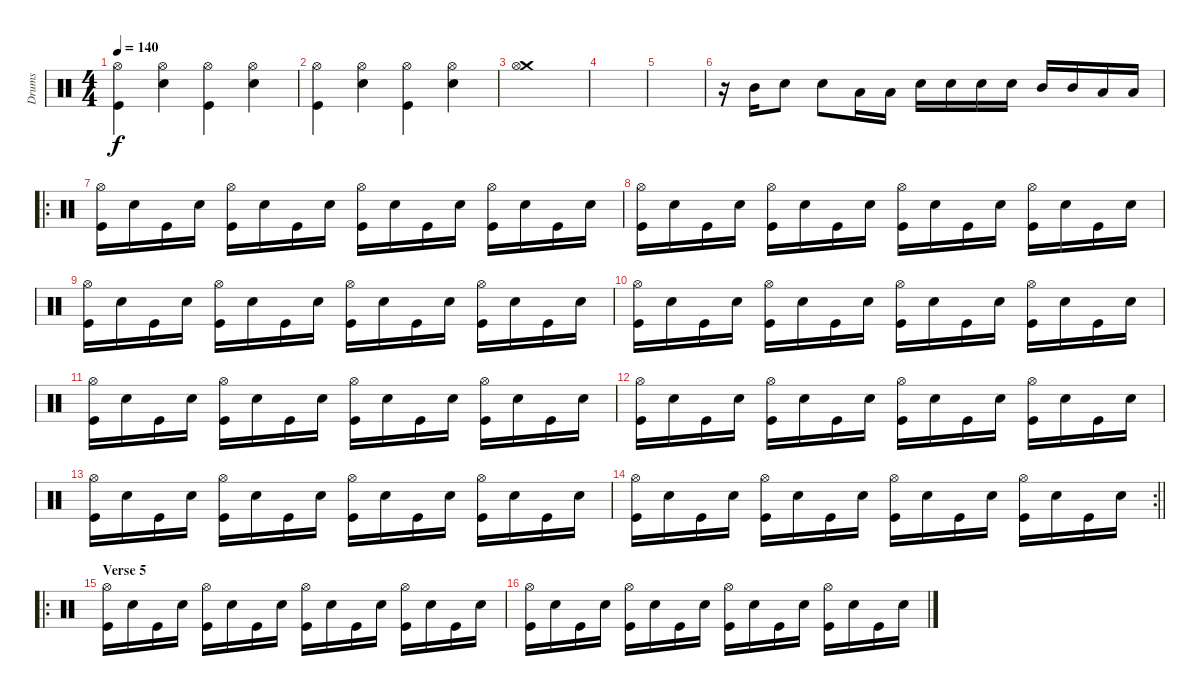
\track ("Drums" "Drums") {instrument percussion}
\staff {score}
\articulation defaults
\ts (4 4)
\tempo 140
\clef neutral
\ks c
("Hi-Hat (open)" "Kick (hit)").4{dy f} ("Hi-Hat (open)" "Snare (hit) 2").4 ("Hi-Hat (open)" "Kick (hit)").4 ("Hi-Hat (open)" "Snare (hit) 2").4 |
("Hi-Hat (open)" "Kick (hit)").4 ("Hi-Hat (open)" "Snare (hit) 2").4 ("Hi-Hat (open)" "Kick (hit)").4 ("Hi-Hat (open)" "Snare (hit) 2").4 |
("Crash medium (hit)" "Hi-Hat (open)").1 |
|
|
r.16 "Mid Tom (hit)".16 "Snare (hit) 2".8 "Snare (hit) 2".8 "Low Tom (hit)".16 "Low Tom (hit)".16 "Snare (hit) 2".16 "Snare (hit) 2".16 "Snare (hit) 2".16 "Snare (hit) 2".16 "Mid Tom (hit)".16 "Mid Tom (hit)".16 "Low Tom (hit)".16 "Low Tom (hit)".16 |
\ro
("Hi-Hat (open)" "Kick (hit)").16 "Snare (hit) 2".16 "Kick (hit)".16 "Snare (hit) 2".16 ("Hi-Hat (open)" "Kick (hit)").16 "Snare (hit) 2".16 "Kick (hit)".16 "Snare (hit) 2".16 ("Hi-Hat (open)" "Kick (hit)").16 "Snare (hit) 2".16 "Kick (hit)".16 "Snare (hit) 2".16 ("Hi-Hat (open)" "Kick (hit)").16 "Snare (hit) 2".16 "Kick (hit)".16 "Snare (hit) 2".16 |
("Hi-Hat (open)" "Kick (hit)").16 "Snare (hit) 2".16 "Kick (hit)".16 "Snare (hit) 2".16 ("Hi-Hat (open)" "Kick (hit)").16 "Snare (hit) 2".16 "Kick (hit)".16 "Snare (hit) 2".16 ("Hi-Hat (open)" "Kick (hit)").16 "Snare (hit) 2".16 "Kick (hit)".16 "Snare (hit) 2".16 ("Hi-Hat (open)" "Kick (hit)").16 "Snare (hit) 2".16 "Kick (hit)".16 "Snare (hit) 2".16 |
("Hi-Hat (open)" "Kick (hit)").16 "Snare (hit) 2".16 "Kick (hit)".16 "Snare (hit) 2".16 ("Hi-Hat (open)" "Kick (hit)").16 "Snare (hit) 2".16 "Kick (hit)".16 "Snare (hit) 2".16 ("Hi-Hat (open)" "Kick (hit)").16 "Snare (hit) 2".16 "Kick (hit)".16 "Snare (hit) 2".16 ("Hi-Hat (open)" "Kick (hit)").16 "Snare (hit) 2".16 "Kick (hit)".16 "Snare (hit) 2".16 |
("Hi-Hat (open)" "Kick (hit)").16 "Snare (hit) 2".16 "Kick (hit)".16 "Snare (hit) 2".16 ("Hi-Hat (open)" "Kick (hit)").16 "Snare (hit) 2".16 "Kick (hit)".16 "Snare (hit) 2".16 ("Hi-Hat (open)" "Kick (hit)").16 "Snare (hit) 2".16 "Kick (hit)".16 "Snare (hit) 2".16 ("Hi-Hat (open)" "Kick (hit)").16 "Snare (hit) 2".16 "Kick (hit)".16 "Snare (hit) 2".16 |
("Hi-Hat (open)" "Kick (hit)").16 "Snare (hit) 2".16 "Kick (hit)".16 "Snare (hit) 2".16 ("Hi-Hat (open)" "Kick (hit)").16 "Snare (hit) 2".16 "Kick (hit)".16 "Snare (hit) 2".16 ("Hi-Hat (open)" "Kick (hit)").16 "Snare (hit) 2".16 "Kick (hit)".16 "Snare (hit) 2".16 ("Hi-Hat (open)" "Kick (hit)").16 "Snare (hit) 2".16 "Kick (hit)".16 "Snare (hit) 2".16 |
("Hi-Hat (open)" "Kick (hit)").16 "Snare (hit) 2".16 "Kick (hit)".16 "Snare (hit) 2".16 ("Hi-Hat (open)" "Kick (hit)").16 "Snare (hit) 2".16 "Kick (hit)".16 "Snare (hit) 2".16 ("Hi-Hat (open)" "Kick (hit)").16 "Snare (hit) 2".16 "Kick (hit)".16 "Snare (hit) 2".16 ("Hi-Hat (open)" "Kick (hit)").16 "Snare (hit) 2".16 "Kick (hit)".16 "Snare (hit) 2".16 |
("Hi-Hat (open)" "Kick (hit)").16 "Snare (hit) 2".16 "Kick (hit)".16 "Snare (hit) 2".16 ("Hi-Hat (open)" "Kick (hit)").16 "Snare (hit) 2".16 "Kick (hit)".16 "Snare (hit) 2".16 ("Hi-Hat (open)" "Kick (hit)").16 "Snare (hit) 2".16 "Kick (hit)".16 "Snare (hit) 2".16 ("Hi-Hat (open)" "Kick (hit)").16 "Snare (hit) 2".16 "Kick (hit)".16 "Snare (hit) 2".16 |
\rc 2
\barLineRight lightlight
("Hi-Hat (open)" "Kick (hit)").16 "Snare (hit) 2".16 "Kick (hit)".16 "Snare (hit) 2".16 ("Hi-Hat (open)" "Kick (hit)").16 "Snare (hit) 2".16 "Kick (hit)".16 "Snare (hit) 2".16 ("Hi-Hat (open)" "Kick (hit)").16 "Snare (hit) 2".16 "Kick (hit)".16 "Snare (hit) 2".16 ("Hi-Hat (open)" "Kick (hit)").16 "Snare (hit) 2".16 "Kick (hit)".16 "Snare (hit) 2".16 |
\ro
\section ("" "Verse 5")
("Hi-Hat (open)" "Kick (hit)").16 "Snare (hit) 2".16 "Kick (hit)".16 "Snare (hit) 2".16 ("Hi-Hat (open)" "Kick (hit)").16 "Snare (hit) 2".16 "Kick (hit)".16 "Snare (hit) 2".16 ("Hi-Hat (open)" "Kick (hit)").16 "Snare (hit) 2".16 "Kick (hit)".16 "Snare (hit) 2".16 ("Hi-Hat (open)" "Kick (hit)").16 "Snare (hit) 2".16 "Kick (hit)".16 "Snare (hit) 2".16 |
("Hi-Hat (open)" "Kick (hit)").16 "Snare (hit) 2".16 "Kick (hit)".16 "Snare (hit) 2".16 ("Hi-Hat (open)" "Kick (hit)").16 "Snare (hit) 2".16 "Kick (hit)".16 "Snare (hit) 2".16 ("Hi-Hat (open)" "Kick (hit)").16 "Snare (hit) 2".16 "Kick (hit)".16 "Snare (hit) 2".16 ("Hi-Hat (open)" "Kick (hit)").16 "Snare (hit) 2".16 "Kick (hit)".16 "Snare (hit) 2".16
